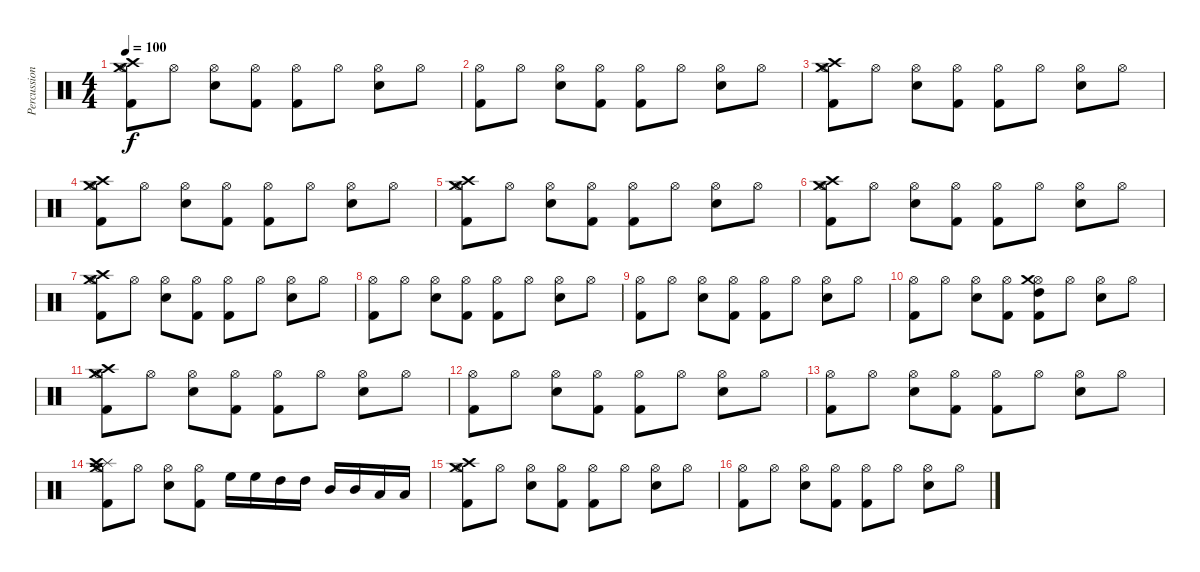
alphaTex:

\track ("Percussion" "Percussion") {instrument percussion}
\staff {score}
\articulation defaults
\ts (4 4)
\tempo 100
\clef neutral
\ks c
("Crash high (hit)" "Crash medium (hit)" "Kick (hit) 2" "Hi-Hat (open)").8{dy f} "Hi-Hat (open)".8 ("Hi-Hat (open)" "Electric Snare (hit)").8 ("Hi-Hat (open)" "Kick (hit) 2").8 ("Hi-Hat (open)" "Kick (hit) 2").8 "Hi-Hat (open)".8 ("Hi-Hat (open)" "Electric Snare (hit)").8 "Hi-Hat (open)".8 |
("Kick (hit) 2" "Hi-Hat (open)").8 "Hi-Hat (open)".8 ("Hi-Hat (open)" "Electric Snare (hit)").8 ("Hi-Hat (open)" "Kick (hit) 2").8 ("Hi-Hat (open)" "Kick (hit) 2").8 "Hi-Hat (open)".8 ("Hi-Hat (open)" "Electric Snare (hit)").8 "Hi-Hat (open)".8 |
("Crash high (hit)" "Crash medium (hit)" "Kick (hit) 2" "Hi-Hat (open)").8 "Hi-Hat (open)".8 ("Hi-Hat (open)" "Electric Snare (hit)").8 ("Hi-Hat (open)" "Kick (hit) 2").8 ("Hi-Hat (open)" "Kick (hit) 2").8 "Hi-Hat (open)".8 ("Hi-Hat (open)" "Electric Snare (hit)").8 "Hi-Hat (open)".8 |
("Crash high (hit)" "Crash medium (hit)" "Kick (hit) 2" "Hi-Hat (open)").8 "Hi-Hat (open)".8 ("Hi-Hat (open)" "Electric Snare (hit)").8 ("Hi-Hat (open)" "Kick (hit) 2").8 ("Hi-Hat (open)" "Kick (hit) 2").8 "Hi-Hat (open)".8 ("Hi-Hat (open)" "Electric Snare (hit)").8 "Hi-Hat (open)".8 |
("Crash high (hit)" "Crash medium (hit)" "Kick (hit) 2" "Hi-Hat (open)").8 "Hi-Hat (open)".8 ("Hi-Hat (open)" "Electric Snare (hit)").8 ("Hi-Hat (open)" "Kick (hit) 2").8 ("Hi-Hat (open)" "Kick (hit) 2").8 "Hi-Hat (open)".8 ("Hi-Hat (open)" "Electric Snare (hit)").8 "Hi-Hat (open)".8 |
("Crash high (hit)" "Crash medium (hit)" "Kick (hit) 2" "Hi-Hat (open)").8 "Hi-Hat (open)".8 ("Hi-Hat (open)" "Electric Snare (hit)").8 ("Hi-Hat (open)" "Kick (hit) 2").8 ("Hi-Hat (open)" "Kick (hit) 2").8 "Hi-Hat (open)".8 ("Hi-Hat (open)" "Electric Snare (hit)").8 "Hi-Hat (open)".8 |
("Crash high (hit)" "Crash medium (hit)" "Kick (hit) 2" "Hi-Hat (open)").8 "Hi-Hat (open)".8 ("Hi-Hat (open)" "Electric Snare (hit)").8 ("Hi-Hat (open)" "Kick (hit) 2").8 ("Hi-Hat (open)" "Kick (hit) 2").8 "Hi-Hat (open)".8 ("Hi-Hat (open)" "Electric Snare (hit)").8 "Hi-Hat (open)".8 |
("Kick (hit) 2" "Hi-Hat (open)").8 "Hi-Hat (open)".8 ("Hi-Hat (open)" "Electric Snare (hit)").8 ("Hi-Hat (open)" "Kick (hit) 2").8 ("Hi-Hat (open)" "Kick (hit) 2").8 "Hi-Hat (open)".8 ("Hi-Hat (open)" "Electric Snare (hit)").8 "Hi-Hat (open)".8 |
("Kick (hit) 2" "Hi-Hat (open)").8 "Hi-Hat (open)".8 ("Hi-Hat (open)" "Electric Snare (hit)").8 ("Hi-Hat (open)" "Kick (hit) 2").8 ("Hi-Hat (open)" "Kick (hit) 2").8 "Hi-Hat (open)".8 ("Hi-Hat (open)" "Electric Snare (hit)").8 "Hi-Hat (open)".8 |
("Kick (hit) 2" "Hi-Hat (open)").8 "Hi-Hat (open)".8 ("Hi-Hat (open)" "Electric Snare (hit)").8 ("Hi-Hat (open)" "Kick (hit) 2").8 ("Hi-Hat (open)" "Kick (hit) 2" "Crash medium (hit)" "High Tom (hit)").8 "Hi-Hat (open)".8 ("Hi-Hat (open)" "Electric Snare (hit)").8 "Hi-Hat (open)".8 |
("Crash high (hit)" "Crash medium (hit)" "Kick (hit) 2" "Hi-Hat (open)").8 "Hi-Hat (open)".8 ("Hi-Hat (open)" "Electric Snare (hit)").8 ("Hi-Hat (open)" "Kick (hit) 2").8 ("Hi-Hat (open)" "Kick (hit) 2").8 "Hi-Hat (open)".8 ("Hi-Hat (open)" "Electric Snare (hit)").8 "Hi-Hat (open)".8 |
("Kick (hit) 2" "Hi-Hat (open)").8 "Hi-Hat (open)".8 ("Hi-Hat (open)" "Electric Snare (hit)").8 ("Hi-Hat (open)" "Kick (hit) 2").8 ("Hi-Hat (open)" "Kick (hit) 2").8 "Hi-Hat (open)".8 ("Hi-Hat (open)" "Electric Snare (hit)").8 "Hi-Hat (open)".8 |
("Kick (hit) 2" "Hi-Hat (open)").8 "Hi-Hat (open)".8 ("Hi-Hat (open)" "Electric Snare (hit)").8 ("Hi-Hat (open)" "Kick (hit) 2").8 ("Hi-Hat (open)" "Kick (hit) 2").8 "Hi-Hat (open)".8 ("Hi-Hat (open)" "Electric Snare (hit)").8 "Hi-Hat (open)".8 |
("Splash (hit)" "Crash high (hit)" "Crash medium (hit)" "Hi-Hat (open)" "Kick (hit) 2").8 "Hi-Hat (open)".8 ("Hi-Hat (open)" "Electric Snare (hit)").8 ("Hi-Hat (open)" "Kick (hit) 2").8 "High Floor Tom (hit)".16 "High Floor Tom (hit)".16 "High Tom (hit)".16 "High Tom (hit)".16 "Mid Tom (hit)".16 "Mid Tom (hit)".16 "Low Tom (hit)".16 "Low Tom (hit)".16 |
("Crash high (hit)" "Crash medium (hit)" "Kick (hit) 2" "Hi-Hat (open)").8 "Hi-Hat (open)".8 ("Hi-Hat (open)" "Electric Snare (hit)").8 ("Hi-Hat (open)" "Kick (hit) 2").8 ("Hi-Hat (open)" "Kick (hit) 2").8 "Hi-Hat (open)".8 ("Hi-Hat (open)" "Electric Snare (hit)").8 "Hi-Hat (open)".8 |
("Kick (hit) 2" "Hi-Hat (open)").8 "Hi-Hat (open)".8 ("Hi-Hat (open)" "Electric Snare (hit)").8 ("Hi-Hat (open)" "Kick (hit) 2").8 ("Hi-Hat (open)" "Kick (hit) 2").8 "Hi-Hat (open)".8 ("Hi-Hat (open)" "Electric Snare (hit)").8 "Hi-Hat (open)".8
